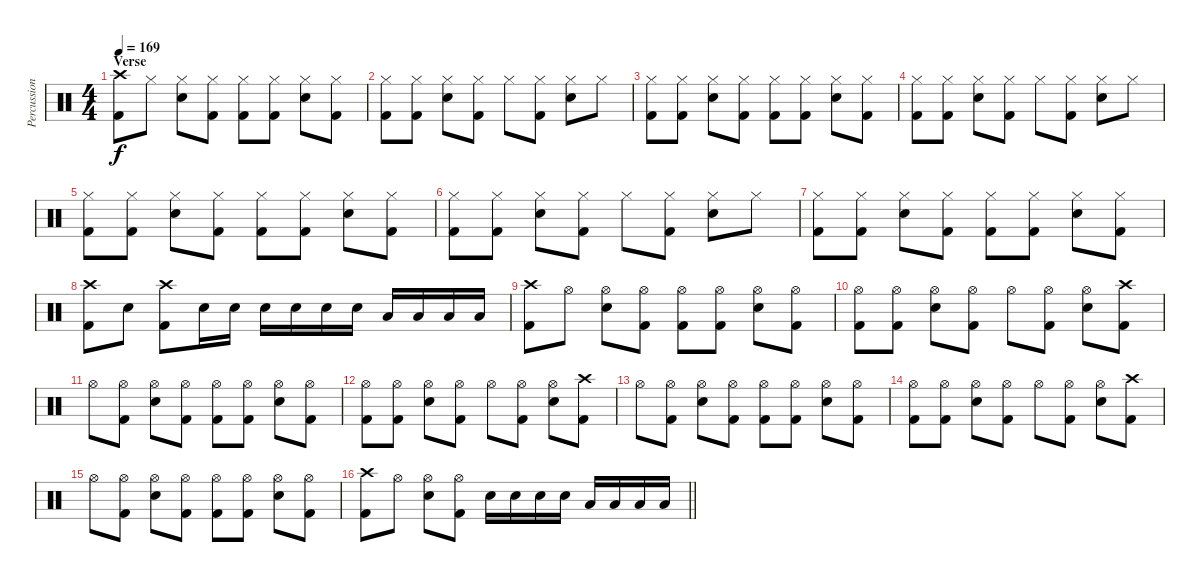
\track ("Percussion" "Percussion") {instrument percussion}
\staff {score}
\articulation defaults
\ts (4 4)
\section ("" "Verse")
\tempo 169
\clef neutral
\ks c
("Crash high (hit)" "Kick (hit) 2").8{dy f} "Hi-Hat (closed)".8 ("Hi-Hat (closed)" "Electric Snare (hit)").8 ("Hi-Hat (closed)" "Kick (hit) 2").8 ("Hi-Hat (closed)" "Kick (hit) 2").8 ("Hi-Hat (closed)" "Kick (hit) 2").8 ("Hi-Hat (closed)" "Electric Snare (hit)").8 ("Hi-Hat (closed)" "Kick (hit) 2").8 |
("Hi-Hat (closed)" "Kick (hit) 2").8 ("Hi-Hat (closed)" "Kick (hit) 2").8 ("Hi-Hat (closed)" "Electric Snare (hit)").8 ("Hi-Hat (closed)" "Kick (hit) 2").8 "Hi-Hat (closed)".8 ("Hi-Hat (closed)" "Kick (hit) 2").8 ("Hi-Hat (closed)" "Electric Snare (hit)").8 "Hi-Hat (closed)".8 |
("Hi-Hat (closed)" "Kick (hit) 2").8 ("Hi-Hat (closed)" "Kick (hit) 2").8 ("Hi-Hat (closed)" "Electric Snare (hit)").8 ("Hi-Hat (closed)" "Kick (hit) 2").8 ("Hi-Hat (closed)" "Kick (hit) 2").8 ("Hi-Hat (closed)" "Kick (hit) 2").8 ("Hi-Hat (closed)" "Electric Snare (hit)").8 ("Hi-Hat (closed)" "Kick (hit) 2").8 |
("Hi-Hat (closed)" "Kick (hit) 2").8 ("Hi-Hat (closed)" "Kick (hit) 2").8 ("Hi-Hat (closed)" "Electric Snare (hit)").8 ("Hi-Hat (closed)" "Kick (hit) 2").8 "Hi-Hat (closed)".8 ("Hi-Hat (closed)" "Kick (hit) 2").8 ("Hi-Hat (closed)" "Electric Snare (hit)").8 "Hi-Hat (closed)".8 |
("Hi-Hat (closed)" "Kick (hit) 2").8 ("Hi-Hat (closed)" "Kick (hit) 2").8 ("Hi-Hat (closed)" "Electric Snare (hit)").8 ("Hi-Hat (closed)" "Kick (hit) 2").8 ("Hi-Hat (closed)" "Kick (hit) 2").8 ("Hi-Hat (closed)" "Kick (hit) 2").8 ("Hi-Hat (closed)" "Electric Snare (hit)").8 ("Hi-Hat (closed)" "Kick (hit) 2").8 |
("Hi-Hat (closed)" "Kick (hit) 2").8 ("Hi-Hat (closed)" "Kick (hit) 2").8 ("Hi-Hat (closed)" "Electric Snare (hit)").8 ("Hi-Hat (closed)" "Kick (hit) 2").8 "Hi-Hat (closed)".8 ("Hi-Hat (closed)" "Kick (hit) 2").8 ("Hi-Hat (closed)" "Electric Snare (hit)").8 "Hi-Hat (closed)".8 |
("Hi-Hat (closed)" "Kick (hit) 2").8 ("Hi-Hat (closed)" "Kick (hit) 2").8 ("Hi-Hat (closed)" "Electric Snare (hit)").8 ("Hi-Hat (closed)" "Kick (hit) 2").8 ("Hi-Hat (closed)" "Kick (hit) 2").8 ("Hi-Hat (closed)" "Kick (hit) 2").8 ("Hi-Hat (closed)" "Electric Snare (hit)").8 ("Hi-Hat (closed)" "Kick (hit) 2").8 |
("Crash high (hit)" "Kick (hit) 2").8 "Electric Snare (hit)".8 ("Crash high (hit)" "Kick (hit) 2").8 "Electric Snare (hit)".16 "Electric Snare (hit)".16 "Electric Snare (hit)".16 "Electric Snare (hit)".16 "Electric Snare (hit)".16 "Electric Snare (hit)".16 "Low Floor Tom (hit)".16 "Low Floor Tom (hit)".16 "Low Floor Tom (hit)".16 "Low Floor Tom (hit)".16 |
("Crash high (hit)" "Kick (hit) 2").8 "Hi-Hat (open)".8 ("Hi-Hat (open)" "Electric Snare (hit)").8 ("Hi-Hat (open)" "Kick (hit) 2").8 ("Hi-Hat (open)" "Kick (hit) 2").8 ("Hi-Hat (open)" "Kick (hit) 2").8 ("Hi-Hat (open)" "Electric Snare (hit)").8 ("Hi-Hat (open)" "Kick (hit) 2").8 |
("Hi-Hat (open)" "Kick (hit) 2").8 ("Hi-Hat (open)" "Kick (hit) 2").8 ("Hi-Hat (open)" "Electric Snare (hit)").8 ("Hi-Hat (open)" "Kick (hit) 2").8 "Hi-Hat (open)".8 ("Hi-Hat (open)" "Kick (hit) 2").8 ("Hi-Hat (open)" "Electric Snare (hit)").8 ("Crash high (hit)" "Kick (hit) 2").8 |
"Hi-Hat (open)".8 ("Hi-Hat (open)" "Kick (hit) 2").8 ("Hi-Hat (open)" "Electric Snare (hit)").8 ("Hi-Hat (open)" "Kick (hit) 2").8 ("Hi-Hat (open)" "Kick (hit) 2").8 ("Hi-Hat (open)" "Kick (hit) 2").8 ("Hi-Hat (open)" "Electric Snare (hit)").8 ("Hi-Hat (open)" "Kick (hit) 2").8 |
("Hi-Hat (open)" "Kick (hit) 2").8 ("Hi-Hat (open)" "Kick (hit) 2").8 ("Hi-Hat (open)" "Electric Snare (hit)").8 ("Hi-Hat (open)" "Kick (hit) 2").8 "Hi-Hat (open)".8 ("Hi-Hat (open)" "Kick (hit) 2").8 ("Hi-Hat (open)" "Electric Snare (hit)").8 ("Crash high (hit)" "Kick (hit) 2").8 |
"Hi-Hat (open)".8 ("Hi-Hat (open)" "Kick (hit) 2").8 ("Hi-Hat (open)" "Electric Snare (hit)").8 ("Hi-Hat (open)" "Kick (hit) 2").8 ("Hi-Hat (open)" "Kick (hit) 2").8 ("Hi-Hat (open)" "Kick (hit) 2").8 ("Hi-Hat (open)" "Electric Snare (hit)").8 ("Hi-Hat (open)" "Kick (hit) 2").8 |
("Hi-Hat (open)" "Kick (hit) 2").8 ("Hi-Hat (open)" "Kick (hit) 2").8 ("Hi-Hat (open)" "Electric Snare (hit)").8 ("Hi-Hat (open)" "Kick (hit) 2").8 "Hi-Hat (open)".8 ("Hi-Hat (open)" "Kick (hit) 2").8 ("Hi-Hat (open)" "Electric Snare (hit)").8 ("Crash high (hit)" "Kick (hit) 2").8 |
"Hi-Hat (open)".8 ("Hi-Hat (open)" "Kick (hit) 2").8 ("Hi-Hat (open)" "Electric Snare (hit)").8 ("Hi-Hat (open)" "Kick (hit) 2").8 ("Hi-Hat (open)" "Kick (hit) 2").8 ("Hi-Hat (open)" "Kick (hit) 2").8 ("Hi-Hat (open)" "Electric Snare (hit)").8 ("Hi-Hat (open)" "Kick (hit) 2").8 |
\barLineRight lightlight
("Crash high (hit)" "Kick (hit) 2").8 "Hi-Hat (open)".8 ("Hi-Hat (open)" "Electric Snare (hit)").8 ("Hi-Hat (open)" "Kick (hit) 2").8 "Electric Snare (hit)".16 "Electric Snare (hit)".16 "Electric Snare (hit)".16 "Electric Snare (hit)".16 "Low Floor Tom (hit)".16 "Low Floor Tom (hit)".16 "Low Floor Tom (hit)".16 "Low Floor Tom (hit)".16
